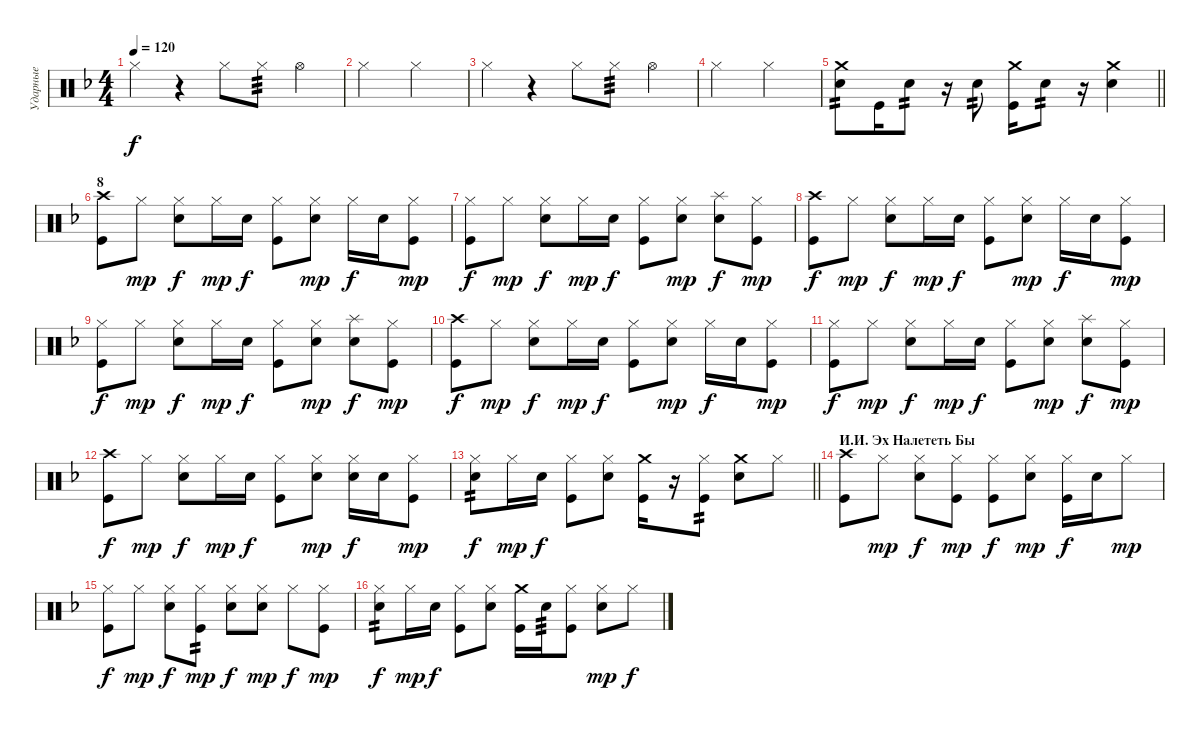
\track ("Ударные" "Ударные") {instrument percussion}
\staff {score}
\articulation defaults
\ts (4 4)
\tempo 120
\clef neutral
\ks dminor "Hi-Hat (closed)".4{dy f}
r.4 "Hi-Hat (closed)".8 "Hi-Hat (closed)".8{tp 3} "Hi-Hat (open)".4 |
"Hi-Hat (closed)".2 "Hi-Hat (closed)".2 |
"Hi-Hat (closed)".4 r.4 "Hi-Hat (closed)".8 "Hi-Hat (closed)".8{tp 3} "Hi-Hat (open)".4 |
"Hi-Hat (closed)".2 "Hi-Hat (closed)".2 |
\barLineRight lightlight
("Crash medium (hit)" "Snare (hit) 2").8{tp 2} "Kick (hit)".16 "Snare (hit) 2".8{tp 2} r.16 "Snare (hit) 2".8{tp 2} ("Crash medium (hit)" "Kick (hit)").16 "Snare (hit) 2".8{tp 2} r.16 ("Crash medium (hit)" "Snare (hit) 2").4 |
\section ("" "8")
("Crash high (hit)" "Kick (hit)").8 "Hi-Hat (closed)".8{dy mp} ("Hi-Hat (closed)" "Snare (hit) 2").8{dy f} "Hi-Hat (closed)".16{dy mp} "Snare (hit) 2".16{dy f} ("Hi-Hat (closed)" "Kick (hit)").8 ("Hi-Hat (closed)" "Snare (hit) 2").8{dy mp} "Hi-Hat (closed)".16{dy f} "Snare (hit) 2".16 ("Hi-Hat (closed)" "Kick (hit)").8{dy mp} |
("Hi-Hat (closed)" "Kick (hit)").8{dy f} "Hi-Hat (closed)".8{dy mp} ("Hi-Hat (closed)" "Snare (hit) 2").8{dy f} "Hi-Hat (closed)".16{dy mp} "Snare (hit) 2".16{dy f} ("Hi-Hat (closed)" "Kick (hit)").8 ("Hi-Hat (closed)" "Snare (hit) 2").8{dy mp} ("Splash (hit)" "Snare (hit) 2").8{dy f} ("Hi-Hat (closed)" "Kick (hit)").8{dy mp} |
("Crash high (hit)" "Kick (hit)").8{dy f} "Hi-Hat (closed)".8{dy mp} ("Hi-Hat (closed)" "Snare (hit) 2").8{dy f} "Hi-Hat (closed)".16{dy mp} "Snare (hit) 2".16{dy f} ("Hi-Hat (closed)" "Kick (hit)").8 ("Hi-Hat (closed)" "Snare (hit) 2").8{dy mp} "Hi-Hat (closed)".16{dy f} "Snare (hit) 2".16 ("Hi-Hat (closed)" "Kick (hit)").8{dy mp} |
("Hi-Hat (closed)" "Kick (hit)").8{dy f} "Hi-Hat (closed)".8{dy mp} ("Hi-Hat (closed)" "Snare (hit) 2").8{dy f} "Hi-Hat (closed)".16{dy mp} "Snare (hit) 2".16{dy f} ("Hi-Hat (closed)" "Kick (hit)").8 ("Hi-Hat (closed)" "Snare (hit) 2").8{dy mp} ("Splash (hit)" "Snare (hit) 2").8{dy f} ("Hi-Hat (closed)" "Kick (hit)").8{dy mp} |
("Crash high (hit)" "Kick (hit)").8{dy f} "Hi-Hat (closed)".8{dy mp} ("Hi-Hat (closed)" "Snare (hit) 2").8{dy f} "Hi-Hat (closed)".16{dy mp} "Snare (hit) 2".16{dy f} ("Hi-Hat (closed)" "Kick (hit)").8 ("Hi-Hat (closed)" "Snare (hit) 2").8{dy mp} "Hi-Hat (closed)".16{dy f} "Snare (hit) 2".16 ("Hi-Hat (closed)" "Kick (hit)").8{dy mp} |
("Hi-Hat (closed)" "Kick (hit)").8{dy f} "Hi-Hat (closed)".8{dy mp} ("Hi-Hat (closed)" "Snare (hit) 2").8{dy f} "Hi-Hat (closed)".16{dy mp} "Snare (hit) 2".16{dy f} ("Hi-Hat (closed)" "Kick (hit)").8 ("Hi-Hat (closed)" "Snare (hit) 2").8{dy mp} ("Splash (hit)" "Snare (hit) 2").8{dy f} ("Hi-Hat (closed)" "Kick (hit)").8{dy mp} |
("Crash high (hit)" "Kick (hit)").8{dy f} "Hi-Hat (closed)".8{dy mp} ("Hi-Hat (closed)" "Snare (hit) 2").8{dy f} "Hi-Hat (closed)".16{dy mp} "Snare (hit) 2".16{dy f} ("Hi-Hat (closed)" "Kick (hit)").8 ("Hi-Hat (closed)" "Snare (hit) 2").8{dy mp} ("Hi-Hat (closed)" "Snare (hit) 2").16{dy f} "Snare (hit) 2".16 ("Hi-Hat (closed)" "Kick (hit)").8{dy mp} |
\barLineRight lightlight
("Hi-Hat (closed)" "Snare (hit) 2").8{tp 2 dy f} "Hi-Hat (closed)".16{dy mp} "Snare (hit) 2".16{dy f} ("Hi-Hat (closed)" "Kick (hit)").8 ("Hi-Hat (closed)" "Snare (hit) 2").8 ("Crash medium (hit)" "Kick (hit)").16 r.16 ("Hi-Hat (closed)" "Kick (hit)").8{tp 2} ("Crash medium (hit)" "Snare (hit) 2").8 "Hi-Hat (closed)".8 |
\section ("" "И.И. Эх Налететь Бы")
("Crash high (hit)" "Kick (hit)").8 "Hi-Hat (closed)".8{dy mp} ("Hi-Hat (closed)" "Snare (hit) 2").8{dy f} ("Hi-Hat (closed)" "Kick (hit)").8{dy mp} ("Hi-Hat (closed)" "Kick (hit)").8{dy f} ("Hi-Hat (closed)" "Snare (hit) 2").8{dy mp} ("Hi-Hat (closed)" "Kick (hit)").16{dy f} "Snare (hit) 2".16 "Hi-Hat (closed)".8{dy mp} |
("Hi-Hat (closed)" "Kick (hit)").8{dy f} "Hi-Hat (closed)".8{dy mp} ("Hi-Hat (closed)" "Snare (hit) 2").8{dy f} ("Hi-Hat (closed)" "Kick (hit)").8{tp 2 dy mp} ("Hi-Hat (closed)" "Snare (hit) 2").8{dy f} ("Hi-Hat (closed)" "Snare (hit) 2").8{dy mp} "Hi-Hat (closed)".8{dy f} ("Hi-Hat (closed)" "Kick (hit)").8{dy mp} |
("Hi-Hat (closed)" "Snare (hit) 2").8{tp 2 dy f} "Hi-Hat (closed)".16{dy mp} "Snare (hit) 2".16{dy f} ("Hi-Hat (closed)" "Kick (hit)").8 ("Hi-Hat (closed)" "Snare (hit) 2").8 ("Crash medium (hit)" "Kick (hit)").16 "Snare (hit) 2".16{tp 3} ("Hi-Hat (closed)" "Kick (hit)").8 ("Hi-Hat (closed)" "Snare (hit) 2").8{dy mp} "Hi-Hat (closed)".8{dy f}
